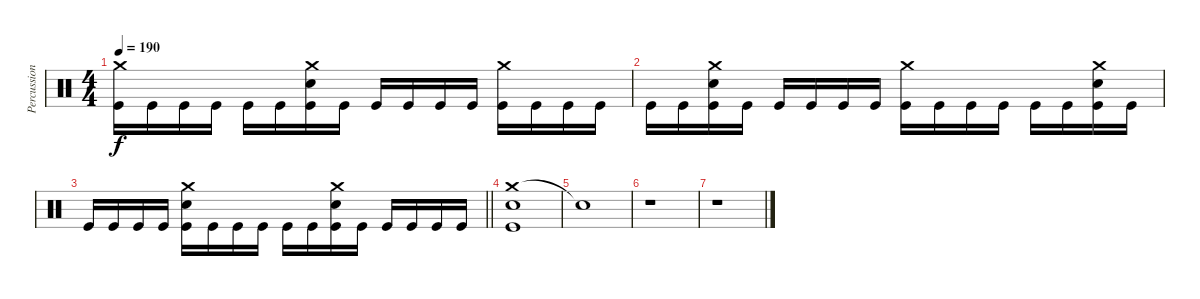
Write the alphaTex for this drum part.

\track ("Percussion" "Percussion") {instrument percussion}
\staff {score}
\articulation defaults
\ts (4 4)
\tempo 190
\clef neutral
\ks c
("Crash medium (hit)" "Kick (hit)").16{dy f} "Kick (hit)".16 "Kick (hit)".16 "Kick (hit)".16 "Kick (hit)".16 "Kick (hit)".16 ("Crash medium (hit)" "Snare (hit) 2" "Kick (hit)").16 "Kick (hit)".16 "Kick (hit)".16 "Kick (hit)".16 "Kick (hit)".16 "Kick (hit)".16 ("Crash medium (hit)" "Kick (hit)").16 "Kick (hit)".16 "Kick (hit)".16 "Kick (hit)".16 |
"Kick (hit)".16 "Kick (hit)".16 ("Crash medium (hit)" "Snare (hit) 2" "Kick (hit)").16 "Kick (hit)".16 "Kick (hit)".16 "Kick (hit)".16 "Kick (hit)".16 "Kick (hit)".16 ("Crash medium (hit)" "Kick (hit)").16 "Kick (hit)".16 "Kick (hit)".16 "Kick (hit)".16 "Kick (hit)".16 "Kick (hit)".16 ("Crash medium (hit)" "Snare (hit) 2" "Kick (hit)").16 "Kick (hit)".16 |
\barLineRight lightlight "Kick (hit)".16 "Kick (hit)".16 "Kick (hit)".16 "Kick (hit)".16
("Crash medium (hit)" "Snare (hit) 2" "Kick (hit)").16 "Kick (hit)".16 "Kick (hit)".16 "Kick (hit)".16 "Kick (hit)".16 "Kick (hit)".16 ("Crash medium (hit)" "Snare (hit) 2" "Kick (hit)").16 "Kick (hit)".16 "Kick (hit)".16 "Kick (hit)".16 "Kick (hit)".16 "Kick (hit)".16 |
("Crash medium (hit)" "Snare (hit) 2" "Kick (hit)").1 |
"Snare (hit)"{t}.1 |
r.1 |
r.1
